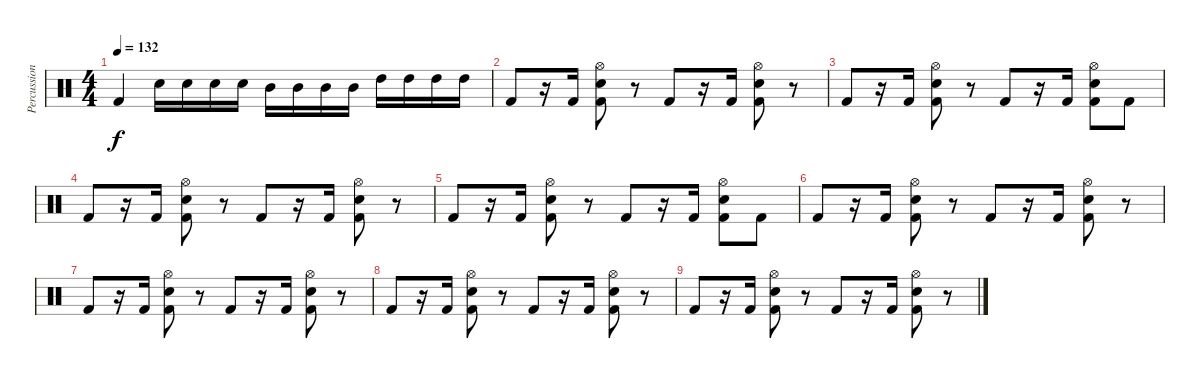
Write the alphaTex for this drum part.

\track ("Percussion" "Percussion") {instrument percussion}
\staff {score}
\articulation defaults
\ts (4 4)
\tempo 132
\clef neutral
\ks c "Kick (hit) 2".4{dy f} "Snare (hit) 2".16 "Snare (hit) 2".16 "Snare (hit) 2".16 "Snare (hit) 2".16 "Mid Tom (hit)".16 "Mid Tom (hit)".16 "Mid Tom (hit)".16 "Mid Tom (hit)".16 "High Tom (hit)".16 "High Tom (hit)".16 "High Tom (hit)".16 "High Tom (hit)".16
|
"Kick (hit) 2".8{volume 12} r.16 "Kick (hit) 2".16 ("Hi-Hat (open)" "Snare (hit) 2" "Kick (hit) 2").8 r.8 "Kick (hit) 2".8{volume 12} r.16 "Kick (hit) 2".16 ("Hi-Hat (open)" "Snare (hit) 2" "Kick (hit) 2").8 r.8 |
"Kick (hit) 2".8 r.16{volume 11} "Kick (hit) 2".16 ("Hi-Hat (open)" "Snare (hit) 2" "Kick (hit) 2").8 r.8 "Kick (hit) 2".8 r.16 "Kick (hit) 2".16 ("Hi-Hat (open)" "Snare (hit) 2" "Kick (hit) 2").8{volume 11} "Kick (hit) 2".8 |
"Kick (hit) 2".8 r.16 "Kick (hit) 2".16 ("Hi-Hat (open)" "Snare (hit) 2" "Kick (hit) 2").8 r.8 "Kick (hit) 2".8 r.16{volume 10} "Kick (hit) 2".16 ("Hi-Hat (open)" "Snare (hit) 2" "Kick (hit) 2").8 r.8 |
"Kick (hit) 2".8{volume 10} r.16 "Kick (hit) 2".16 ("Hi-Hat (open)" "Snare (hit) 2" "Kick (hit) 2").8 r.8 "Kick (hit) 2".8{volume 9} r.16 "Kick (hit) 2".16 ("Hi-Hat (open)" "Snare (hit) 2" "Kick (hit) 2").8 "Kick (hit) 2".8 |
"Kick (hit) 2".8 r.16 "Kick (hit) 2".16{volume 9} ("Hi-Hat (open)" "Snare (hit) 2" "Kick (hit) 2").8 r.8 "Kick (hit) 2".8 r.16 "Kick (hit) 2".16 ("Hi-Hat (open)" "Snare (hit) 2" "Kick (hit) 2").8{volume 9} r.8 |
"Kick (hit) 2".8 r.16 "Kick (hit) 2".16{volume 8} ("Hi-Hat (open)" "Snare (hit) 2" "Kick (hit) 2").8 r.8 "Kick (hit) 2".8 r.16 "Kick (hit) 2".16 ("Hi-Hat (open)" "Snare (hit) 2" "Kick (hit) 2").8{volume 8} r.8 |
"Kick (hit) 2".8 r.16 "Kick (hit) 2".16 ("Hi-Hat (open)" "Snare (hit) 2" "Kick (hit) 2").8{volume 7} r.8 "Kick (hit) 2".8 r.16 "Kick (hit) 2".16 ("Hi-Hat (open)" "Snare (hit) 2" "Kick (hit) 2").8{volume 7} r.8 |
"Kick (hit) 2".8 r.16 "Kick (hit) 2".16 ("Hi-Hat (open)" "Snare (hit) 2" "Kick (hit) 2").8{volume 6} r.8 "Kick (hit) 2".8 r.16 "Kick (hit) 2".16 ("Hi-Hat (open)" "Snare (hit) 2" "Kick (hit) 2").8 r.8
